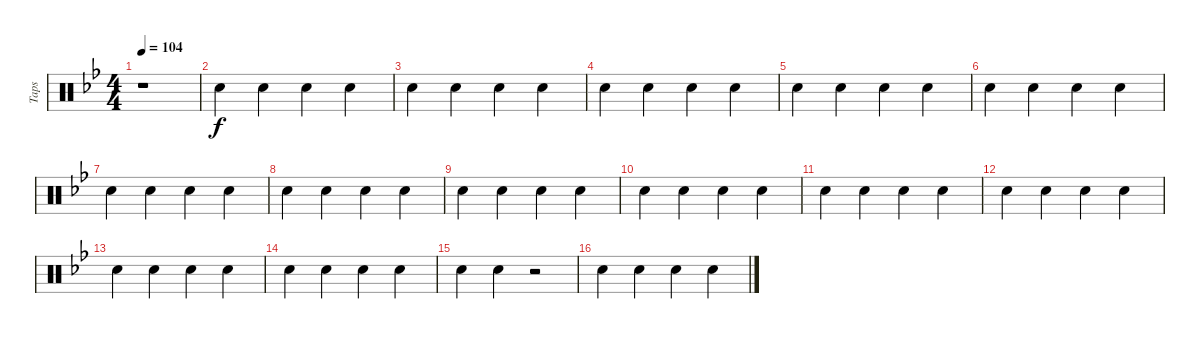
\track ("Taps" "Taps") {instrument percussion}
\staff {score}
\articulation defaults
\ts (4 4)
\tempo 104
\clef neutral
\ks bb
r.1{dy f} |
"Hand Clap (hit)".4 "Hand Clap (hit)".4 "Hand Clap (hit)".4 "Hand Clap (hit)".4 |
"Hand Clap (hit)".4 "Hand Clap (hit)".4 "Hand Clap (hit)".4 "Hand Clap (hit)".4 |
"Hand Clap (hit)".4 "Hand Clap (hit)".4 "Hand Clap (hit)".4 "Hand Clap (hit)".4 |
"Hand Clap (hit)".4 "Hand Clap (hit)".4 "Hand Clap (hit)".4 "Hand Clap (hit)".4 |
"Hand Clap (hit)".4 "Hand Clap (hit)".4 "Hand Clap (hit)".4 "Hand Clap (hit)".4 |
"Hand Clap (hit)".4 "Hand Clap (hit)".4 "Hand Clap (hit)".4 "Hand Clap (hit)".4 |
"Hand Clap (hit)".4 "Hand Clap (hit)".4 "Hand Clap (hit)".4 "Hand Clap (hit)".4 |
"Hand Clap (hit)".4 "Hand Clap (hit)".4 "Hand Clap (hit)".4 "Hand Clap (hit)".4 |
"Hand Clap (hit)".4 "Hand Clap (hit)".4 "Hand Clap (hit)".4 "Hand Clap (hit)".4 |
"Hand Clap (hit)".4 "Hand Clap (hit)".4 "Hand Clap (hit)".4 "Hand Clap (hit)".4 |
"Hand Clap (hit)".4 "Hand Clap (hit)".4 "Hand Clap (hit)".4 "Hand Clap (hit)".4 |
"Hand Clap (hit)".4 "Hand Clap (hit)".4 "Hand Clap (hit)".4 "Hand Clap (hit)".4 |
"Hand Clap (hit)".4 "Hand Clap (hit)".4 "Hand Clap (hit)".4 "Hand Clap (hit)".4 |
"Hand Clap (hit)".4 "Hand Clap (hit)".4 r.2 |
"Hand Clap (hit)".4 "Hand Clap (hit)".4 "Hand Clap (hit)".4 "Hand Clap (hit)".4
